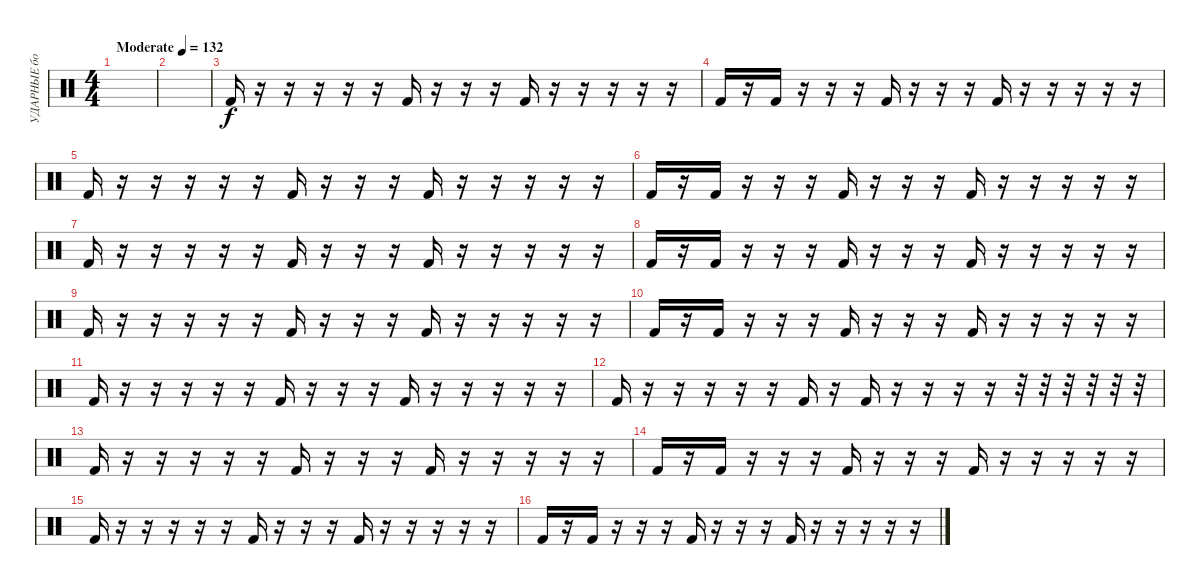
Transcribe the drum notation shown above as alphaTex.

\track ("УДАРНЫЕ бочка" "УДАРНЫЕ бо") {instrument percussion}
\staff {score}
\articulation defaults
\ts (4 4)
\tempo (132 "Moderate")
\clef neutral
\ks c
|
|
"Kick (hit) 2".16 r.16 r.16 r.16 r.16 r.16 "Kick (hit) 2".16 r.16 r.16 r.16 "Kick (hit) 2".16 r.16 r.16 r.16 r.16 r.16 |
"Kick (hit) 2".16 r.16 "Kick (hit) 2".16 r.16 r.16 r.16 "Kick (hit) 2".16 r.16 r.16 r.16 "Kick (hit) 2".16 r.16 r.16 r.16 r.16 r.16 |
"Kick (hit) 2".16 r.16 r.16 r.16 r.16 r.16 "Kick (hit) 2".16 r.16 r.16 r.16 "Kick (hit) 2".16 r.16 r.16 r.16 r.16 r.16 |
"Kick (hit) 2".16 r.16 "Kick (hit) 2".16 r.16 r.16 r.16 "Kick (hit) 2".16 r.16 r.16 r.16 "Kick (hit) 2".16 r.16 r.16 r.16 r.16 r.16 |
"Kick (hit) 2".16 r.16 r.16 r.16 r.16 r.16 "Kick (hit) 2".16 r.16 r.16 r.16 "Kick (hit) 2".16 r.16 r.16 r.16 r.16 r.16 |
"Kick (hit) 2".16 r.16 "Kick (hit) 2".16 r.16 r.16 r.16 "Kick (hit) 2".16 r.16 r.16 r.16 "Kick (hit) 2".16 r.16 r.16 r.16 r.16 r.16 |
"Kick (hit) 2".16 r.16 r.16 r.16 r.16 r.16 "Kick (hit) 2".16 r.16 r.16 r.16 "Kick (hit) 2".16 r.16 r.16 r.16 r.16 r.16 |
"Kick (hit) 2".16 r.16 "Kick (hit) 2".16 r.16 r.16 r.16 "Kick (hit) 2".16 r.16 r.16 r.16 "Kick (hit) 2".16 r.16 r.16 r.16 r.16 r.16 |
"Kick (hit) 2".16 r.16 r.16 r.16 r.16 r.16 "Kick (hit) 2".16 r.16 r.16 r.16 "Kick (hit) 2".16 r.16 r.16 r.16 r.16 r.16 |
"Kick (hit) 2".16 r.16 r.16 r.16 r.16 r.16 "Kick (hit) 2".16 r.16 "Kick (hit) 2".16 r.16 r.16 r.16 r.16 r.32 r.32 r.32 r.32 r.32 r.32 |
"Kick (hit) 2".16 r.16 r.16 r.16 r.16 r.16 "Kick (hit) 2".16 r.16 r.16 r.16 "Kick (hit) 2".16 r.16 r.16 r.16 r.16 r.16 |
"Kick (hit) 2".16 r.16 "Kick (hit) 2".16 r.16 r.16 r.16 "Kick (hit) 2".16 r.16 r.16 r.16 "Kick (hit) 2".16 r.16 r.16 r.16 r.16 r.16 |
"Kick (hit) 2".16 r.16 r.16 r.16 r.16 r.16 "Kick (hit) 2".16 r.16 r.16 r.16 "Kick (hit) 2".16 r.16 r.16 r.16 r.16 r.16 |
"Kick (hit) 2".16 r.16 "Kick (hit) 2".16 r.16 r.16 r.16 "Kick (hit) 2".16 r.16 r.16 r.16 "Kick (hit) 2".16 r.16 r.16 r.16 r.16 r.16
